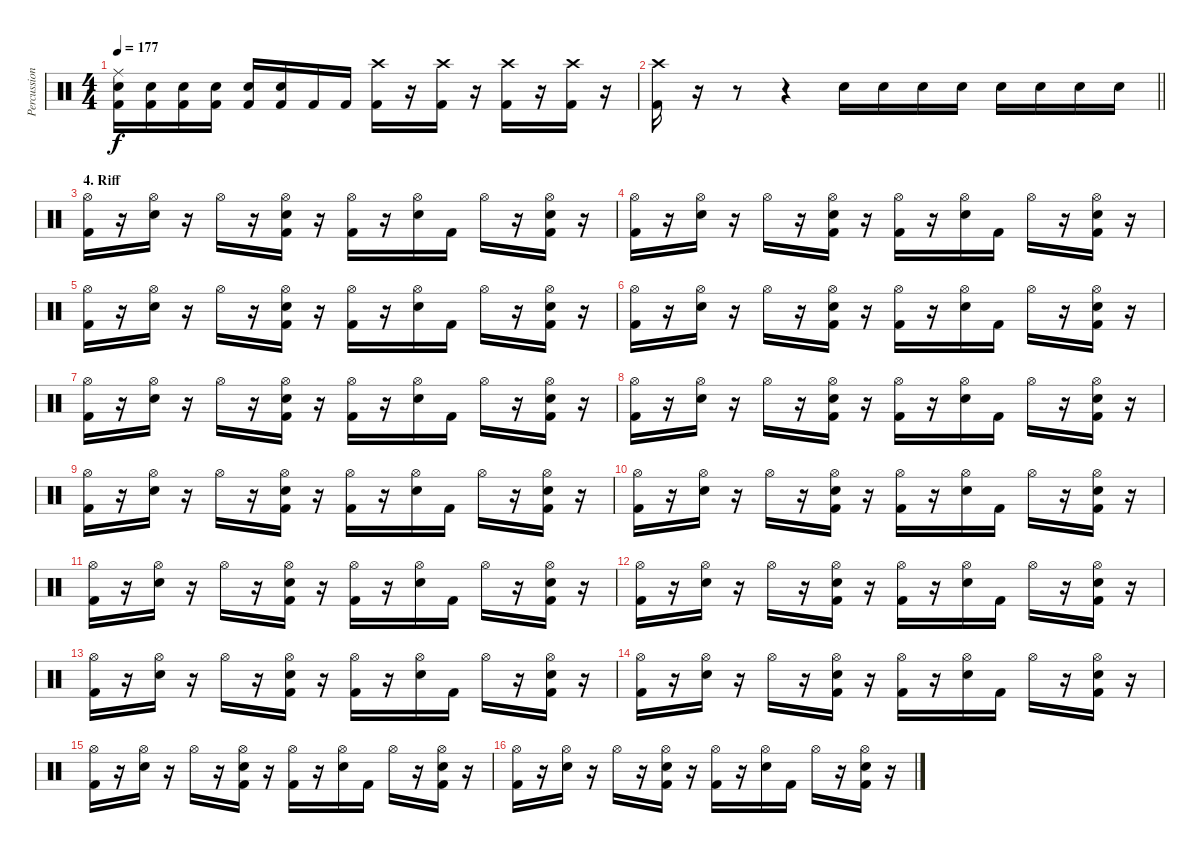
\track ("Percussion" "Percussion") {instrument percussion}
\staff {score}
\articulation defaults
\ts (4 4)
\tempo 177
\clef neutral
\ks c
("Ride (middle)" "Snare (hit) 2" "Kick (hit) 2").16{dy f} ("Snare (hit) 2" "Kick (hit) 2").16 ("Snare (hit) 2" "Kick (hit) 2").16 ("Snare (hit) 2" "Kick (hit) 2").16 ("Snare (hit) 2" "Kick (hit) 2").16 ("Snare (hit) 2" "Kick (hit) 2").16 "Kick (hit) 2".16 "Kick (hit) 2".16 ("Crash high (hit)" "Kick (hit) 2").16 r.16 ("Crash high (hit)" "Kick (hit) 2").16 r.16 ("Crash high (hit)" "Kick (hit) 2").16 r.16 ("Crash high (hit)" "Kick (hit) 2").16 r.16 |
\barLineRight lightlight
("Crash high (hit)" "Kick (hit) 2").16 r.16 r.8 r.4 "Snare (hit) 2".16 "Snare (hit) 2".16 "Snare (hit) 2".16 "Snare (hit) 2".16 "Snare (hit) 2".16 "Snare (hit) 2".16 "Snare (hit) 2".16 "Snare (hit) 2".16 |
\section ("" "4. Riff")
("Hi-Hat (open)" "Kick (hit) 2").16 r.16 ("Hi-Hat (open)" "Snare (hit) 2").16 r.16 "Hi-Hat (open)".16 r.16 ("Hi-Hat (open)" "Snare (hit) 2" "Kick (hit) 2").16 r.16 ("Hi-Hat (open)" "Kick (hit) 2").16 r.16 ("Hi-Hat (open)" "Snare (hit) 2").16 "Kick (hit) 2".16 "Hi-Hat (open)".16 r.16 ("Hi-Hat (open)" "Snare (hit) 2" "Kick (hit) 2").16 r.16 |
("Hi-Hat (open)" "Kick (hit) 2").16 r.16 ("Hi-Hat (open)" "Snare (hit) 2").16 r.16 "Hi-Hat (open)".16 r.16 ("Hi-Hat (open)" "Snare (hit) 2" "Kick (hit) 2").16 r.16 ("Hi-Hat (open)" "Kick (hit) 2").16 r.16 ("Hi-Hat (open)" "Snare (hit) 2").16 "Kick (hit) 2".16 "Hi-Hat (open)".16 r.16 ("Hi-Hat (open)" "Snare (hit) 2" "Kick (hit) 2").16 r.16 |
("Hi-Hat (open)" "Kick (hit) 2").16 r.16 ("Hi-Hat (open)" "Snare (hit) 2").16 r.16 "Hi-Hat (open)".16 r.16 ("Hi-Hat (open)" "Snare (hit) 2" "Kick (hit) 2").16 r.16 ("Hi-Hat (open)" "Kick (hit) 2").16 r.16 ("Hi-Hat (open)" "Snare (hit) 2").16 "Kick (hit) 2".16 "Hi-Hat (open)".16 r.16 ("Hi-Hat (open)" "Snare (hit) 2" "Kick (hit) 2").16 r.16 |
("Hi-Hat (open)" "Kick (hit) 2").16 r.16 ("Hi-Hat (open)" "Snare (hit) 2").16 r.16 "Hi-Hat (open)".16 r.16 ("Hi-Hat (open)" "Snare (hit) 2" "Kick (hit) 2").16 r.16 ("Hi-Hat (open)" "Kick (hit) 2").16 r.16 ("Hi-Hat (open)" "Snare (hit) 2").16 "Kick (hit) 2".16 "Hi-Hat (open)".16 r.16 ("Hi-Hat (open)" "Snare (hit) 2" "Kick (hit) 2").16 r.16 |
("Hi-Hat (open)" "Kick (hit) 2").16 r.16 ("Hi-Hat (open)" "Snare (hit) 2").16 r.16 "Hi-Hat (open)".16 r.16 ("Hi-Hat (open)" "Snare (hit) 2" "Kick (hit) 2").16 r.16 ("Hi-Hat (open)" "Kick (hit) 2").16 r.16 ("Hi-Hat (open)" "Snare (hit) 2").16 "Kick (hit) 2".16 "Hi-Hat (open)".16 r.16 ("Hi-Hat (open)" "Snare (hit) 2" "Kick (hit) 2").16 r.16 |
("Hi-Hat (open)" "Kick (hit) 2").16 r.16 ("Hi-Hat (open)" "Snare (hit) 2").16 r.16 "Hi-Hat (open)".16 r.16 ("Hi-Hat (open)" "Snare (hit) 2" "Kick (hit) 2").16 r.16 ("Hi-Hat (open)" "Kick (hit) 2").16 r.16 ("Hi-Hat (open)" "Snare (hit) 2").16 "Kick (hit) 2".16 "Hi-Hat (open)".16 r.16 ("Hi-Hat (open)" "Snare (hit) 2" "Kick (hit) 2").16 r.16 |
("Hi-Hat (open)" "Kick (hit) 2").16 r.16 ("Hi-Hat (open)" "Snare (hit) 2").16 r.16 "Hi-Hat (open)".16 r.16 ("Hi-Hat (open)" "Snare (hit) 2" "Kick (hit) 2").16 r.16 ("Hi-Hat (open)" "Kick (hit) 2").16 r.16 ("Hi-Hat (open)" "Snare (hit) 2").16 "Kick (hit) 2".16 "Hi-Hat (open)".16 r.16 ("Hi-Hat (open)" "Snare (hit) 2" "Kick (hit) 2").16 r.16 |
("Hi-Hat (open)" "Kick (hit) 2").16 r.16 ("Hi-Hat (open)" "Snare (hit) 2").16 r.16 "Hi-Hat (open)".16 r.16 ("Hi-Hat (open)" "Snare (hit) 2" "Kick (hit) 2").16 r.16 ("Hi-Hat (open)" "Kick (hit) 2").16 r.16 ("Hi-Hat (open)" "Snare (hit) 2").16 "Kick (hit) 2".16 "Hi-Hat (open)".16 r.16 ("Hi-Hat (open)" "Snare (hit) 2" "Kick (hit) 2").16 r.16 |
("Hi-Hat (open)" "Kick (hit) 2").16 r.16 ("Hi-Hat (open)" "Snare (hit) 2").16 r.16 "Hi-Hat (open)".16 r.16 ("Hi-Hat (open)" "Snare (hit) 2" "Kick (hit) 2").16 r.16 ("Hi-Hat (open)" "Kick (hit) 2").16 r.16 ("Hi-Hat (open)" "Snare (hit) 2").16 "Kick (hit) 2".16 "Hi-Hat (open)".16 r.16 ("Hi-Hat (open)" "Snare (hit) 2" "Kick (hit) 2").16 r.16 |
("Hi-Hat (open)" "Kick (hit) 2").16 r.16 ("Hi-Hat (open)" "Snare (hit) 2").16 r.16 "Hi-Hat (open)".16 r.16 ("Hi-Hat (open)" "Snare (hit) 2" "Kick (hit) 2").16 r.16 ("Hi-Hat (open)" "Kick (hit) 2").16 r.16 ("Hi-Hat (open)" "Snare (hit) 2").16 "Kick (hit) 2".16 "Hi-Hat (open)".16 r.16 ("Hi-Hat (open)" "Snare (hit) 2" "Kick (hit) 2").16 r.16 |
("Hi-Hat (open)" "Kick (hit) 2").16 r.16 ("Hi-Hat (open)" "Snare (hit) 2").16 r.16 "Hi-Hat (open)".16 r.16 ("Hi-Hat (open)" "Snare (hit) 2" "Kick (hit) 2").16 r.16 ("Hi-Hat (open)" "Kick (hit) 2").16 r.16 ("Hi-Hat (open)" "Snare (hit) 2").16 "Kick (hit) 2".16 "Hi-Hat (open)".16 r.16 ("Hi-Hat (open)" "Snare (hit) 2" "Kick (hit) 2").16 r.16 |
("Hi-Hat (open)" "Kick (hit) 2").16 r.16 ("Hi-Hat (open)" "Snare (hit) 2").16 r.16 "Hi-Hat (open)".16 r.16 ("Hi-Hat (open)" "Snare (hit) 2" "Kick (hit) 2").16 r.16 ("Hi-Hat (open)" "Kick (hit) 2").16 r.16 ("Hi-Hat (open)" "Snare (hit) 2").16 "Kick (hit) 2".16 "Hi-Hat (open)".16 r.16 ("Hi-Hat (open)" "Snare (hit) 2" "Kick (hit) 2").16 r.16 |
("Hi-Hat (open)" "Kick (hit) 2").16 r.16 ("Hi-Hat (open)" "Snare (hit) 2").16 r.16 "Hi-Hat (open)".16 r.16 ("Hi-Hat (open)" "Snare (hit) 2" "Kick (hit) 2").16 r.16 ("Hi-Hat (open)" "Kick (hit) 2").16 r.16 ("Hi-Hat (open)" "Snare (hit) 2").16 "Kick (hit) 2".16 "Hi-Hat (open)".16 r.16 ("Hi-Hat (open)" "Snare (hit) 2" "Kick (hit) 2").16 r.16 |
("Hi-Hat (open)" "Kick (hit) 2").16 r.16 ("Hi-Hat (open)" "Snare (hit) 2").16 r.16 "Hi-Hat (open)".16 r.16 ("Hi-Hat (open)" "Snare (hit) 2" "Kick (hit) 2").16 r.16 ("Hi-Hat (open)" "Kick (hit) 2").16 r.16 ("Hi-Hat (open)" "Snare (hit) 2").16 "Kick (hit) 2".16 "Hi-Hat (open)".16 r.16 ("Hi-Hat (open)" "Snare (hit) 2" "Kick (hit) 2").16 r.16
